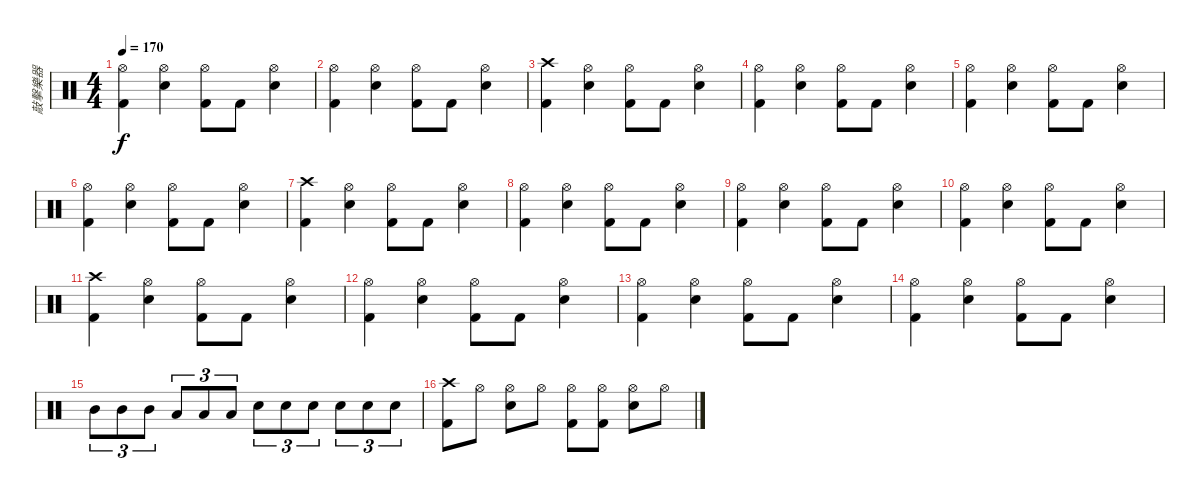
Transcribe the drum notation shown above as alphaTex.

\track ("敲擊樂器" "敲擊樂器") {instrument percussion}
\staff {score}
\articulation defaults
\ts (4 4)
\tempo 170
\clef neutral
\ks c
("Hi-Hat (open)" "Kick (hit) 2").4{dy f} ("Hi-Hat (open)" "Snare (hit) 2").4 ("Hi-Hat (open)" "Kick (hit) 2").8 "Kick (hit) 2".8 ("Hi-Hat (open)" "Snare (hit) 2").4 |
("Hi-Hat (open)" "Kick (hit) 2").4 ("Hi-Hat (open)" "Snare (hit) 2").4 ("Hi-Hat (open)" "Kick (hit) 2").8 "Kick (hit) 2".8 ("Hi-Hat (open)" "Snare (hit) 2").4 |
("Crash high (hit)" "Kick (hit) 2").4 ("Hi-Hat (open)" "Snare (hit) 2").4 ("Hi-Hat (open)" "Kick (hit) 2").8 "Kick (hit) 2".8 ("Hi-Hat (open)" "Snare (hit) 2").4 |
("Hi-Hat (open)" "Kick (hit) 2").4 ("Hi-Hat (open)" "Snare (hit) 2").4 ("Hi-Hat (open)" "Kick (hit) 2").8 "Kick (hit) 2".8 ("Hi-Hat (open)" "Snare (hit) 2").4 |
("Hi-Hat (open)" "Kick (hit) 2").4 ("Hi-Hat (open)" "Snare (hit) 2").4 ("Hi-Hat (open)" "Kick (hit) 2").8 "Kick (hit) 2".8 ("Hi-Hat (open)" "Snare (hit) 2").4 |
("Hi-Hat (open)" "Kick (hit) 2").4 ("Hi-Hat (open)" "Snare (hit) 2").4 ("Hi-Hat (open)" "Kick (hit) 2").8 "Kick (hit) 2".8 ("Hi-Hat (open)" "Snare (hit) 2").4 |
("Crash high (hit)" "Kick (hit) 2").4 ("Hi-Hat (open)" "Snare (hit) 2").4 ("Hi-Hat (open)" "Kick (hit) 2").8 "Kick (hit) 2".8 ("Hi-Hat (open)" "Snare (hit) 2").4 |
("Hi-Hat (open)" "Kick (hit) 2").4 ("Hi-Hat (open)" "Snare (hit) 2").4 ("Hi-Hat (open)" "Kick (hit) 2").8 "Kick (hit) 2".8 ("Hi-Hat (open)" "Snare (hit) 2").4 |
("Hi-Hat (open)" "Kick (hit) 2").4 ("Hi-Hat (open)" "Snare (hit) 2").4 ("Hi-Hat (open)" "Kick (hit) 2").8 "Kick (hit) 2".8 ("Hi-Hat (open)" "Snare (hit) 2").4 |
("Hi-Hat (open)" "Kick (hit) 2").4 ("Hi-Hat (open)" "Snare (hit) 2").4 ("Hi-Hat (open)" "Kick (hit) 2").8 "Kick (hit) 2".8 ("Hi-Hat (open)" "Snare (hit) 2").4 |
("Crash high (hit)" "Kick (hit) 2").4 ("Hi-Hat (open)" "Snare (hit) 2").4 ("Hi-Hat (open)" "Kick (hit) 2").8 "Kick (hit) 2".8 ("Hi-Hat (open)" "Snare (hit) 2").4 |
("Hi-Hat (open)" "Kick (hit) 2").4 ("Hi-Hat (open)" "Snare (hit) 2").4 ("Hi-Hat (open)" "Kick (hit) 2").8 "Kick (hit) 2".8 ("Hi-Hat (open)" "Snare (hit) 2").4 |
("Hi-Hat (open)" "Kick (hit) 2").4 ("Hi-Hat (open)" "Snare (hit) 2").4 ("Hi-Hat (open)" "Kick (hit) 2").8 "Kick (hit) 2".8 ("Hi-Hat (open)" "Snare (hit) 2").4 |
("Hi-Hat (open)" "Kick (hit) 2").4 ("Hi-Hat (open)" "Snare (hit) 2").4 ("Hi-Hat (open)" "Kick (hit) 2").8 "Kick (hit) 2".8 ("Hi-Hat (open)" "Snare (hit) 2").4 |
"Mid Tom (hit)".8{tu (3 2)} "Mid Tom (hit)".8{tu (3 2)} "Mid Tom (hit)".8{tu (3 2)} "Low Tom (hit)".8{tu (3 2)} "Low Tom (hit)".8{tu (3 2)} "Low Tom (hit)".8{tu (3 2)} "Snare (hit) 2".8{tu (3 2)} "Snare (hit) 2".8{tu (3 2)} "Snare (hit) 2".8{tu (3 2)} "Snare (hit) 2".8{tu (3 2)} "Snare (hit) 2".8{tu (3 2)} "Snare (hit) 2".8{tu (3 2)} |
("Crash high (hit)" "Kick (hit) 2").8 "Hi-Hat (open)".8 ("Hi-Hat (open)" "Snare (hit) 2").8 "Hi-Hat (open)".8 ("Hi-Hat (open)" "Kick (hit) 2").8 ("Hi-Hat (open)" "Kick (hit) 2").8 ("Hi-Hat (open)" "Snare (hit) 2").8 "Hi-Hat (open)".8
